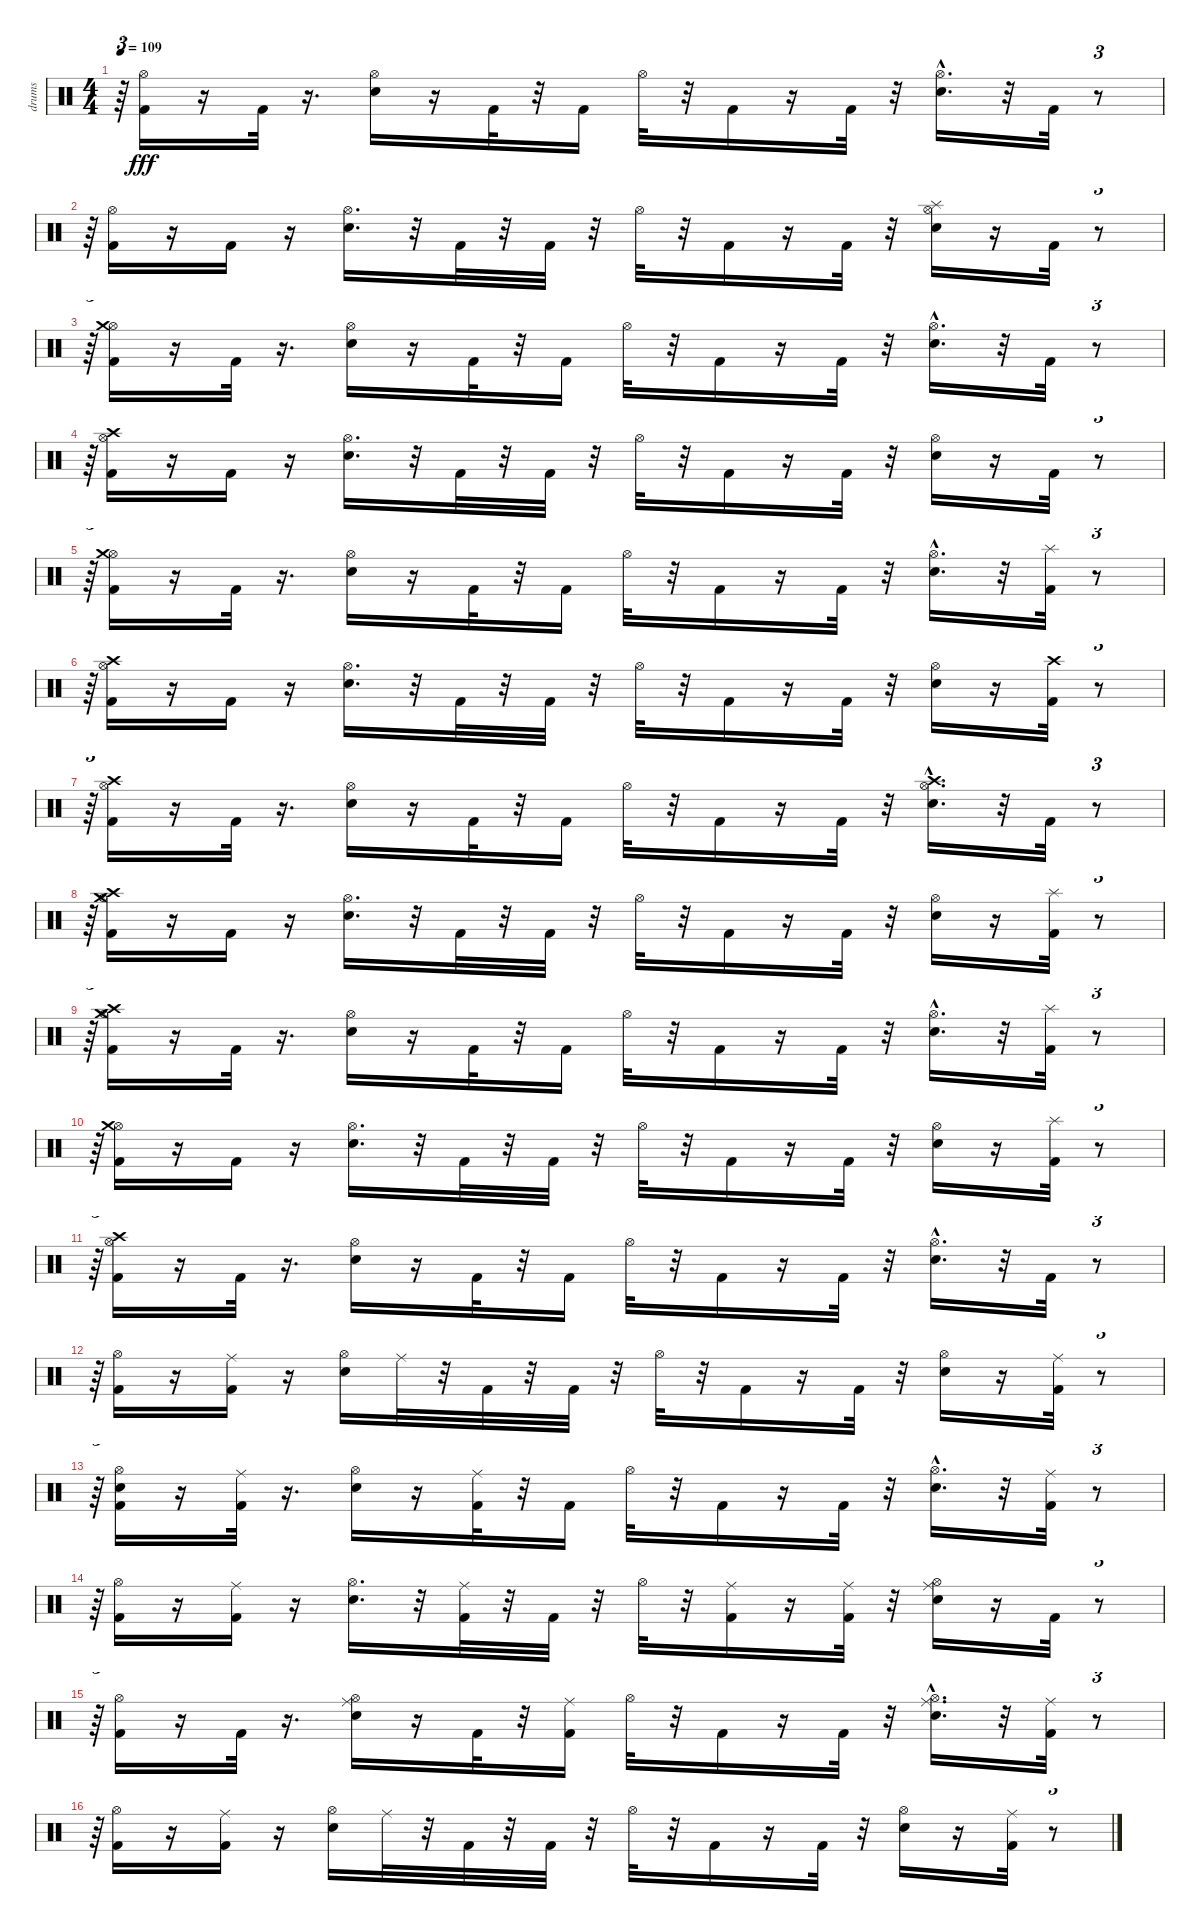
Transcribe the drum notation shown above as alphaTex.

\track ("drums" "drums") {instrument percussion}
\staff {score}
\articulation defaults
\ts (4 4)
\tempo 109
\clef neutral
\ks c
r.64{tu (3 2) dy fff} ("Kick (hit) 2" "Hi-Hat (open)").16 r.16 "Kick (hit) 2".32 r.16{d} ("Snare (hit) 2" "Hi-Hat (open)").16 r.16 "Kick (hit) 2".32 r.32 "Kick (hit) 2".16 "Hi-Hat (open)".32 r.32 "Kick (hit) 2".16 r.16 "Kick (hit) 2".32 r.32 ("Snare (hit) 2"{hac} "Hi-Hat (open)").16{d} r.32 "Kick (hit) 2".32 r.8{tu (3 2)} |
r.64{tu (3 2)} ("Kick (hit) 2" "Hi-Hat (open)").16 r.16 "Kick (hit) 2".16 r.16 ("Snare (hit) 2" "Hi-Hat (open)").16{d} r.32 "Kick (hit) 2".32 r.32 "Kick (hit) 2".32 r.32 "Hi-Hat (open)".32 r.32 "Kick (hit) 2".16 r.16 "Kick (hit) 2".32 r.32 ("Snare (hit) 2" "Hi-Hat (open)" "Splash (hit)").16 r.16 "Kick (hit) 2".32 r.8{tu (3 2)} |
r.64{tu (3 2)} ("Kick (hit) 2" "Hi-Hat (open)" "Crash medium (hit)").16 r.16 "Kick (hit) 2".32 r.16{d} ("Snare (hit) 2" "Hi-Hat (open)").16 r.16 "Kick (hit) 2".32 r.32 "Kick (hit) 2".16 "Hi-Hat (open)".32 r.32 "Kick (hit) 2".16 r.16 "Kick (hit) 2".32 r.32 ("Snare (hit) 2"{hac} "Hi-Hat (open)").16{d} r.32 "Kick (hit) 2".32 r.8{tu (3 2)} |
r.64{tu (3 2)} ("Kick (hit) 2" "Hi-Hat (open)" "Crash high (hit)").16 r.16 "Kick (hit) 2".16 r.16 ("Snare (hit) 2" "Hi-Hat (open)").16{d} r.32 "Kick (hit) 2".32 r.32 "Kick (hit) 2".32 r.32 "Hi-Hat (open)".32 r.32 "Kick (hit) 2".16 r.16 "Kick (hit) 2".32 r.32 ("Snare (hit) 2" "Hi-Hat (open)").16 r.16 "Kick (hit) 2".32 r.8{tu (3 2)} |
r.64{tu (3 2)} ("Kick (hit) 2" "Hi-Hat (open)" "Crash medium (hit)").16 r.16 "Kick (hit) 2".32 r.16{d} ("Snare (hit) 2" "Hi-Hat (open)").16 r.16 "Kick (hit) 2".32 r.32 "Kick (hit) 2".16 "Hi-Hat (open)".32 r.32 "Kick (hit) 2".16 r.16 "Kick (hit) 2".32 r.32 ("Snare (hit) 2"{hac} "Hi-Hat (open)").16{d} r.32 ("Kick (hit) 2" "Splash (hit)").32 r.8{tu (3 2)} |
r.64{tu (3 2)} ("Kick (hit) 2" "Hi-Hat (open)" "Crash high (hit)").16 r.16 "Kick (hit) 2".16 r.16 ("Snare (hit) 2" "Hi-Hat (open)").16{d} r.32 "Kick (hit) 2".32 r.32 "Kick (hit) 2".32 r.32 "Hi-Hat (open)".32 r.32 "Kick (hit) 2".16 r.16 "Kick (hit) 2".32 r.32 ("Snare (hit) 2" "Hi-Hat (open)").16 r.16 ("Kick (hit) 2" "Crash high (hit)").32 r.8{tu (3 2)} |
r.64{tu (3 2)} ("Kick (hit) 2" "Hi-Hat (open)" "Crash high (hit)").16 r.16 "Kick (hit) 2".32 r.16{d} ("Snare (hit) 2" "Hi-Hat (open)").16 r.16 "Kick (hit) 2".32 r.32 "Kick (hit) 2".16 "Hi-Hat (open)".32 r.32 "Kick (hit) 2".16 r.16 "Kick (hit) 2".32 r.32 ("Snare (hit) 2"{hac} "Hi-Hat (open)" "Crash high (hit)").16{d} r.32 "Kick (hit) 2".32 r.8{tu (3 2)} |
r.64{tu (3 2)} ("Kick (hit) 2" "Hi-Hat (open)" "Crash high (hit)" "Crash medium (hit)").16 r.16 "Kick (hit) 2".16 r.16 ("Snare (hit) 2" "Hi-Hat (open)").16{d} r.32 "Kick (hit) 2".32 r.32 "Kick (hit) 2".32 r.32 "Hi-Hat (open)".32 r.32 "Kick (hit) 2".16 r.16 "Kick (hit) 2".32 r.32 ("Snare (hit) 2" "Hi-Hat (open)").16 r.16 ("Kick (hit) 2" "Splash (hit)").32 r.8{tu (3 2)} |
r.64{tu (3 2)} ("Kick (hit) 2" "Hi-Hat (open)" "Crash high (hit)" "Crash medium (hit)").16 r.16 "Kick (hit) 2".32 r.16{d} ("Snare (hit) 2" "Hi-Hat (open)").16 r.16 "Kick (hit) 2".32 r.32 "Kick (hit) 2".16 "Hi-Hat (open)".32 r.32 "Kick (hit) 2".16 r.16 "Kick (hit) 2".32 r.32 ("Snare (hit) 2"{hac} "Hi-Hat (open)").16{d} r.32 ("Kick (hit) 2" "Splash (hit)").32 r.8{tu (3 2)} |
r.64{tu (3 2)} ("Kick (hit) 2" "Hi-Hat (open)" "Crash medium (hit)").16 r.16 "Kick (hit) 2".16 r.16 ("Snare (hit) 2" "Hi-Hat (open)").16{d} r.32 "Kick (hit) 2".32 r.32 "Kick (hit) 2".32 r.32 "Hi-Hat (open)".32 r.32 "Kick (hit) 2".16 r.16 "Kick (hit) 2".32 r.32 ("Snare (hit) 2" "Hi-Hat (open)").16 r.16 ("Kick (hit) 2" "Splash (hit)").32 r.8{tu (3 2)} |
r.64{tu (3 2)} ("Kick (hit) 2" "Hi-Hat (open)" "Crash high (hit)").16 r.16 "Kick (hit) 2".32 r.16{d} ("Snare (hit) 2" "Hi-Hat (open)").16 r.16 "Kick (hit) 2".32 r.32 "Kick (hit) 2".16 "Hi-Hat (open)".32 r.32 "Kick (hit) 2".16 r.16 "Kick (hit) 2".32 r.32 ("Snare (hit) 2"{hac} "Hi-Hat (open)").16{d} r.32 "Kick (hit) 2".32 r.8{tu (3 2)} |
r.64{tu (3 2)} ("Kick (hit) 2" "Hi-Hat (open)").16 r.16 ("Kick (hit) 2" "Ride (middle)").16 r.16 ("Snare (hit) 2" "Hi-Hat (open)").16 "Ride (middle)".32 r.32 "Kick (hit) 2".32 r.32 "Kick (hit) 2".32 r.32 "Hi-Hat (open)".32 r.32 "Kick (hit) 2".16 r.16 "Kick (hit) 2".32 r.32 ("Snare (hit) 2" "Hi-Hat (open)").16 r.16 ("Kick (hit) 2" "Ride (middle)").32 r.8{tu (3 2)} |
r.64{tu (3 2)} ("Kick (hit) 2" "Snare (hit) 2" "Hi-Hat (open)").16 r.16 ("Kick (hit) 2" "Ride (middle)").32 r.16{d} ("Snare (hit) 2" "Hi-Hat (open)").16 r.16 ("Kick (hit) 2" "Ride (middle)").32 r.32 "Kick (hit) 2".16 "Hi-Hat (open)".32 r.32 "Kick (hit) 2".16 r.16 "Kick (hit) 2".32 r.32 ("Snare (hit) 2"{hac} "Hi-Hat (open)").16{d} r.32 ("Kick (hit) 2" "Ride (middle)").32 r.8{tu (3 2)} |
r.64{tu (3 2)} ("Kick (hit) 2" "Hi-Hat (open)").16 r.16 ("Kick (hit) 2" "Ride (middle)").16 r.16 ("Snare (hit) 2" "Hi-Hat (open)").16{d} r.32 ("Kick (hit) 2" "Ride (middle)").32 r.32 "Kick (hit) 2".32 r.32 "Hi-Hat (open)".32 r.32 ("Kick (hit) 2" "Ride (middle)").16 r.16 ("Kick (hit) 2" "Ride (middle)").32 r.32 ("Snare (hit) 2" "Hi-Hat (open)" "Ride (middle)").16 r.16 "Kick (hit) 2".32 r.8{tu (3 2)} |
r.64{tu (3 2)} ("Kick (hit) 2" "Hi-Hat (open)").16 r.16 "Kick (hit) 2".32 r.16{d} ("Snare (hit) 2" "Hi-Hat (open)" "Ride (middle)").16 r.16 "Kick (hit) 2".32 r.32 ("Kick (hit) 2" "Ride (middle)").16 "Hi-Hat (open)".32 r.32 "Kick (hit) 2".16 r.16 "Kick (hit) 2".32 r.32 ("Snare (hit) 2"{hac} "Hi-Hat (open)" "Ride (middle)").16{d} r.32 ("Kick (hit) 2" "Ride (middle)").32 r.8{tu (3 2)} |
r.64{tu (3 2)} ("Kick (hit) 2" "Hi-Hat (open)").16 r.16 ("Kick (hit) 2" "Ride (middle)").16 r.16 ("Snare (hit) 2" "Hi-Hat (open)").16 "Ride (middle)".32 r.32 "Kick (hit) 2".32 r.32 "Kick (hit) 2".32 r.32 "Hi-Hat (open)".32 r.32 "Kick (hit) 2".16 r.16 "Kick (hit) 2".32 r.32 ("Snare (hit) 2" "Hi-Hat (open)").16 r.16 ("Kick (hit) 2" "Ride (middle)").32 r.8{tu (3 2)}
